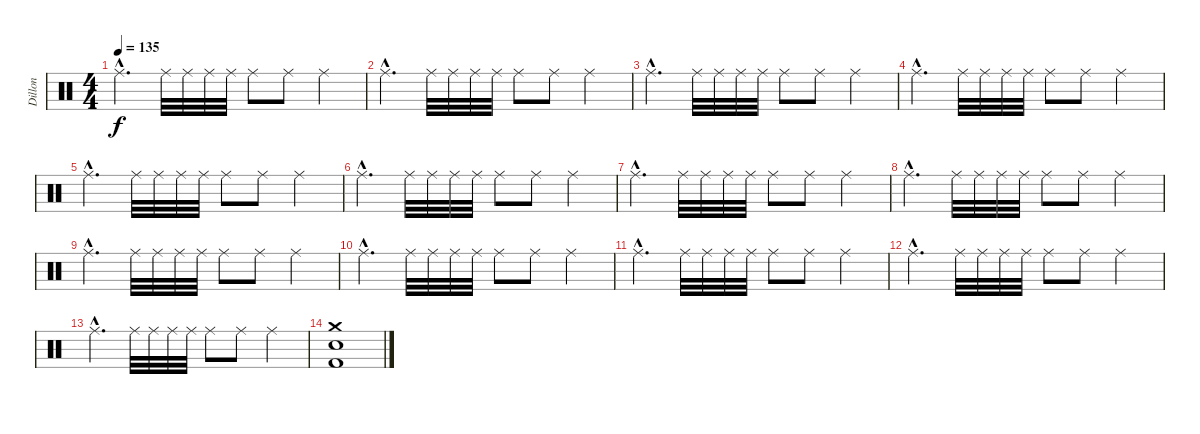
\track ("Dillon" "Dillon") {instrument percussion}
\staff {score}
\articulation defaults
\ts (4 4)
\tempo 135
\clef neutral
\ks c "Ride (middle)"{hac}.4{d dy f} "Ride (middle)".32 "Ride (middle)".32 "Ride (middle)".32 "Ride (middle)".32 "Ride (middle)".8 "Ride (middle)".8 "Ride (middle)".4
|
"Ride (middle)"{hac}.4{d} "Ride (middle)".32 "Ride (middle)".32 "Ride (middle)".32 "Ride (middle)".32 "Ride (middle)".8 "Ride (middle)".8 "Ride (middle)".4 |
"Ride (middle)"{hac}.4{d} "Ride (middle)".32 "Ride (middle)".32 "Ride (middle)".32 "Ride (middle)".32 "Ride (middle)".8 "Ride (middle)".8 "Ride (middle)".4 |
"Ride (middle)"{hac}.4{d} "Ride (middle)".32 "Ride (middle)".32 "Ride (middle)".32 "Ride (middle)".32 "Ride (middle)".8 "Ride (middle)".8 "Ride (middle)".4 |
"Ride (middle)"{hac}.4{d} "Ride (middle)".32 "Ride (middle)".32 "Ride (middle)".32 "Ride (middle)".32 "Ride (middle)".8 "Ride (middle)".8 "Ride (middle)".4 |
"Ride (middle)"{hac}.4{d} "Ride (middle)".32 "Ride (middle)".32 "Ride (middle)".32 "Ride (middle)".32 "Ride (middle)".8 "Ride (middle)".8 "Ride (middle)".4 |
"Ride (middle)"{hac}.4{d} "Ride (middle)".32 "Ride (middle)".32 "Ride (middle)".32 "Ride (middle)".32 "Ride (middle)".8 "Ride (middle)".8 "Ride (middle)".4 |
"Ride (middle)"{hac}.4{d} "Ride (middle)".32 "Ride (middle)".32 "Ride (middle)".32 "Ride (middle)".32 "Ride (middle)".8 "Ride (middle)".8 "Ride (middle)".4 |
"Ride (middle)"{hac}.4{d} "Ride (middle)".32 "Ride (middle)".32 "Ride (middle)".32 "Ride (middle)".32 "Ride (middle)".8 "Ride (middle)".8 "Ride (middle)".4 |
"Ride (middle)"{hac}.4{d} "Ride (middle)".32 "Ride (middle)".32 "Ride (middle)".32 "Ride (middle)".32 "Ride (middle)".8 "Ride (middle)".8 "Ride (middle)".4 |
"Ride (middle)"{hac}.4{d} "Ride (middle)".32 "Ride (middle)".32 "Ride (middle)".32 "Ride (middle)".32 "Ride (middle)".8 "Ride (middle)".8 "Ride (middle)".4 |
"Ride (middle)"{hac}.4{d} "Ride (middle)".32 "Ride (middle)".32 "Ride (middle)".32 "Ride (middle)".32 "Ride (middle)".8 "Ride (middle)".8 "Ride (middle)".4 |
"Ride (middle)"{hac}.4{d} "Ride (middle)".32 "Ride (middle)".32 "Ride (middle)".32 "Ride (middle)".32 "Ride (middle)".8 "Ride (middle)".8 "Ride (middle)".4 |
("Crash medium (hit)" "Electric Snare (hit)" "Kick (hit) 2").1
